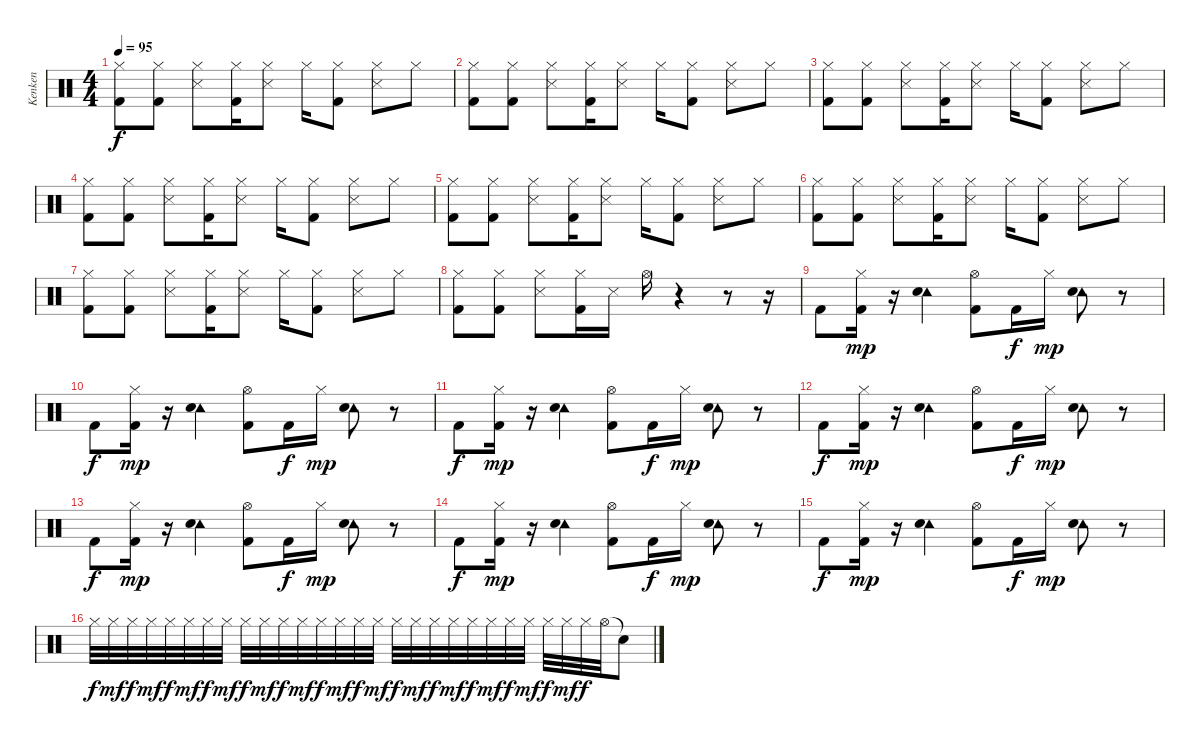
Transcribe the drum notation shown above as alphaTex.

\track ("Kenken" "Kenken") {instrument percussion}
\staff {score}
\articulation defaults
\ts (4 4)
\tempo 95
\clef neutral
\ks c
("Hi-Hat (closed)" "Kick (hit) 2").8{dy f} ("Hi-Hat (closed)" "Kick (hit) 2").8 ("Hi-Hat (closed)" "Snare (side stick) 3").8 ("Hi-Hat (closed)" "Kick (hit) 2").16 ("Hi-Hat (closed)" "Snare (side stick) 3").8 "Hi-Hat (closed)".16 ("Hi-Hat (closed)" "Kick (hit) 2").8 ("Hi-Hat (closed)" "Snare (side stick) 3").8 "Hi-Hat (closed)".8 |
("Hi-Hat (closed)" "Kick (hit) 2").8 ("Hi-Hat (closed)" "Kick (hit) 2").8 ("Hi-Hat (closed)" "Snare (side stick) 3").8 ("Hi-Hat (closed)" "Kick (hit) 2").16 ("Hi-Hat (closed)" "Snare (side stick) 3").8 "Hi-Hat (closed)".16 ("Hi-Hat (closed)" "Kick (hit) 2").8 ("Hi-Hat (closed)" "Snare (side stick) 3").8 "Hi-Hat (closed)".8 |
("Hi-Hat (closed)" "Kick (hit) 2").8 ("Hi-Hat (closed)" "Kick (hit) 2").8 ("Hi-Hat (closed)" "Snare (side stick) 3").8 ("Hi-Hat (closed)" "Kick (hit) 2").16 ("Hi-Hat (closed)" "Snare (side stick) 3").8 "Hi-Hat (closed)".16 ("Hi-Hat (closed)" "Kick (hit) 2").8 ("Hi-Hat (closed)" "Snare (side stick) 3").8 "Hi-Hat (closed)".8 |
("Hi-Hat (closed)" "Kick (hit) 2").8 ("Hi-Hat (closed)" "Kick (hit) 2").8 ("Hi-Hat (closed)" "Snare (side stick) 3").8 ("Hi-Hat (closed)" "Kick (hit) 2").16 ("Hi-Hat (closed)" "Snare (side stick) 3").8 "Hi-Hat (closed)".16 ("Hi-Hat (closed)" "Kick (hit) 2").8 ("Hi-Hat (closed)" "Snare (side stick) 3").8 "Hi-Hat (closed)".8 |
("Hi-Hat (closed)" "Kick (hit) 2").8 ("Hi-Hat (closed)" "Kick (hit) 2").8 ("Hi-Hat (closed)" "Snare (side stick) 3").8 ("Hi-Hat (closed)" "Kick (hit) 2").16 ("Hi-Hat (closed)" "Snare (side stick) 3").8 "Hi-Hat (closed)".16 ("Hi-Hat (closed)" "Kick (hit) 2").8 ("Hi-Hat (closed)" "Snare (side stick) 3").8 "Hi-Hat (closed)".8 |
("Hi-Hat (closed)" "Kick (hit) 2").8 ("Hi-Hat (closed)" "Kick (hit) 2").8 ("Hi-Hat (closed)" "Snare (side stick) 3").8 ("Hi-Hat (closed)" "Kick (hit) 2").16 ("Hi-Hat (closed)" "Snare (side stick) 3").8 "Hi-Hat (closed)".16 ("Hi-Hat (closed)" "Kick (hit) 2").8 ("Hi-Hat (closed)" "Snare (side stick) 3").8 "Hi-Hat (closed)".8 |
("Hi-Hat (closed)" "Kick (hit) 2").8 ("Hi-Hat (closed)" "Kick (hit) 2").8 ("Hi-Hat (closed)" "Snare (side stick) 3").8 ("Hi-Hat (closed)" "Kick (hit) 2").16 ("Hi-Hat (closed)" "Snare (side stick) 3").8 "Hi-Hat (closed)".16 ("Hi-Hat (closed)" "Kick (hit) 2").8 ("Hi-Hat (closed)" "Snare (side stick) 3").8 "Hi-Hat (closed)".8 |
("Hi-Hat (closed)" "Kick (hit) 2").8 ("Hi-Hat (closed)" "Kick (hit) 2").8 ("Hi-Hat (closed)" "Snare (side stick) 3").8 ("Hi-Hat (closed)" "Kick (hit) 2").16 "Snare (side stick) 3".16 "Hi-Hat (open)".16 r.4 r.8 r.16 |
"Kick (hit) 2".8 ("Hi-Hat (closed)" "Kick (hit) 2").16{dy mp} r.16 ("Tambourine (hit)" "Snare (hit) 2").4 ("Hi-Hat (open)" "Kick (hit) 2").8 "Kick (hit) 2".16{dy f} "Hi-Hat (closed)".16{dy mp} ("Tambourine (hit)" "Snare (hit) 2").8 r.8 |
"Kick (hit) 2".8{dy f} ("Hi-Hat (closed)" "Kick (hit) 2").16{dy mp} r.16 ("Tambourine (hit)" "Snare (hit) 2").4 ("Hi-Hat (open)" "Kick (hit) 2").8 "Kick (hit) 2".16{dy f} "Hi-Hat (closed)".16{dy mp} ("Tambourine (hit)" "Snare (hit) 2").8 r.8 |
"Kick (hit) 2".8{dy f} ("Hi-Hat (closed)" "Kick (hit) 2").16{dy mp} r.16 ("Tambourine (hit)" "Snare (hit) 2").4 ("Hi-Hat (open)" "Kick (hit) 2").8 "Kick (hit) 2".16{dy f} "Hi-Hat (closed)".16{dy mp} ("Tambourine (hit)" "Snare (hit) 2").8 r.8 |
"Kick (hit) 2".8{dy f} ("Hi-Hat (closed)" "Kick (hit) 2").16{dy mp} r.16 ("Tambourine (hit)" "Snare (hit) 2").4 ("Hi-Hat (open)" "Kick (hit) 2").8 "Kick (hit) 2".16{dy f} "Hi-Hat (closed)".16{dy mp} ("Tambourine (hit)" "Snare (hit) 2").8 r.8 |
"Kick (hit) 2".8{dy f} ("Hi-Hat (closed)" "Kick (hit) 2").16{dy mp} r.16 ("Tambourine (hit)" "Snare (hit) 2").4 ("Hi-Hat (open)" "Kick (hit) 2").8 "Kick (hit) 2".16{dy f} "Hi-Hat (closed)".16{dy mp} ("Tambourine (hit)" "Snare (hit) 2").8 r.8 |
"Kick (hit) 2".8{dy f} ("Hi-Hat (closed)" "Kick (hit) 2").16{dy mp} r.16 ("Tambourine (hit)" "Snare (hit) 2").4 ("Hi-Hat (open)" "Kick (hit) 2").8 "Kick (hit) 2".16{dy f} "Hi-Hat (closed)".16{dy mp} ("Tambourine (hit)" "Snare (hit) 2").8 r.8 |
"Kick (hit) 2".8{dy f} ("Hi-Hat (closed)" "Kick (hit) 2").16{dy mp} r.16 ("Tambourine (hit)" "Snare (hit) 2").4 ("Hi-Hat (open)" "Kick (hit) 2").8 "Kick (hit) 2".16{dy f} "Hi-Hat (closed)".16{dy mp} ("Tambourine (hit)" "Snare (hit) 2").8 r.8 |
"Hi-Hat (closed)".32{dy f} "Hi-Hat (closed)".32{dy mf} "Hi-Hat (closed)".32{dy f} "Hi-Hat (closed)".32{dy mf} "Hi-Hat (closed)".32{dy f} "Hi-Hat (closed)".32{dy mf} "Hi-Hat (closed)".32{dy f} "Hi-Hat (closed)".32{dy mf} "Hi-Hat (closed)".32{dy f} "Hi-Hat (closed)".32{dy mf} "Hi-Hat (closed)".32{dy f} "Hi-Hat (closed)".32{dy mf} "Hi-Hat (closed)".32{dy f} "Hi-Hat (closed)".32{dy mf} "Hi-Hat (closed)".32{dy f} "Hi-Hat (closed)".32{dy mf} "Hi-Hat (closed)".32{dy f} "Hi-Hat (closed)".32{dy mf} "Hi-Hat (closed)".32{dy f} "Hi-Hat (closed)".32{dy mf} "Hi-Hat (closed)".32{dy f} "Hi-Hat (closed)".32{dy mf} "Hi-Hat (closed)".32{dy f} "Hi-Hat (closed)".32{dy mf} "Hi-Hat (closed)".32{dy f} "Hi-Hat (closed)".32{dy mf} "Hi-Hat (closed)".32{dy f} "Hi-Hat (open)".32 "Snare (hit)"{t}.8
